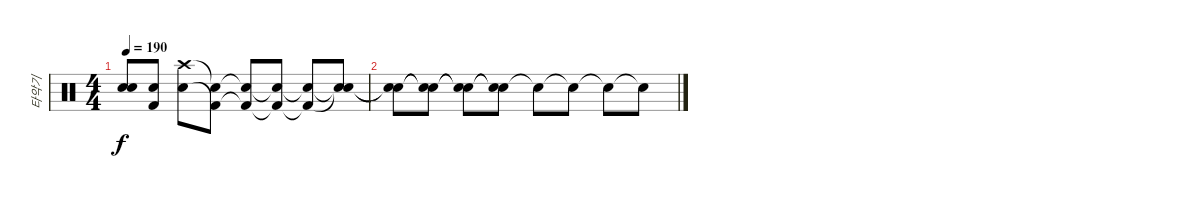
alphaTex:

\track ("타악기" "타악기") {instrument percussion}
\staff {score}
\articulation defaults
\ts (4 4)
\tempo 190
\clef neutral
\ks c
("Electric Snare (hit)"{t} "Snare (hit) 2"{t}).8{dy f} ("Electric Snare (hit)" "Kick (hit) 2").8 ("Crash high (hit)" "Electric Snare (hit)").8 ("Electric Snare (hit)"{t} "Kick (hit) 2"{t}).8 ("Electric Snare (hit)"{t} "Kick (hit) 2"{t}).8 ("Electric Snare (hit)"{t} "Kick (hit) 2"{t}).8 ("Electric Snare (hit)"{t} "Kick (hit) 2"{t}).8 ("Snare (hit)"{t} "Snare (hit)"{t}).8 |
("Snare (hit)"{t} "Snare (hit)"{t}).8 ("Snare (hit)"{t} "Snare (hit)"{t}).8 ("Snare (hit)"{t} "Snare (hit)"{t}).8 ("Snare (hit)"{t} "Snare (hit)"{t}).8 "Snare (hit)"{t}.8 "Snare (hit)"{t}.8 "Snare (hit)"{t}.8 "Snare (hit)"{t}.8
